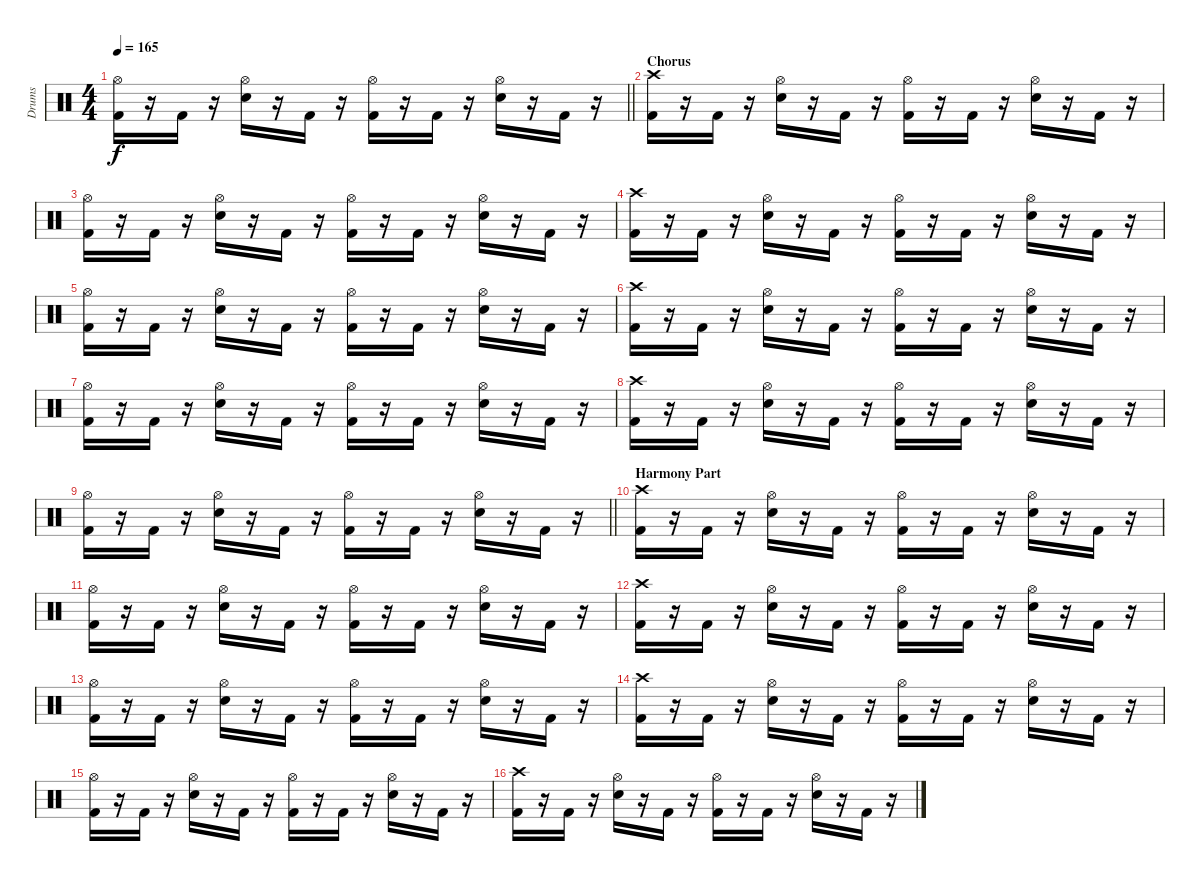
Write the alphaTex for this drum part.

\track ("Drums" "Drums") {instrument percussion}
\staff {score}
\articulation defaults
\ts (4 4)
\tempo 165
\clef neutral
\barLineRight lightlight
\ks c
("Hi-Hat (open)" "Kick (hit) 2").16{dy f} r.16 "Kick (hit) 2".16 r.16 ("Hi-Hat (open)" "Snare (hit) 2").16 r.16 "Kick (hit) 2".16 r.16 ("Hi-Hat (open)" "Kick (hit) 2").16 r.16 "Kick (hit) 2".16 r.16 ("Hi-Hat (open)" "Snare (hit) 2").16 r.16 "Kick (hit) 2".16 r.16 |
\section ("" "Chorus")
("Crash high (hit)" "Kick (hit) 2").16 r.16 "Kick (hit) 2".16 r.16 ("Hi-Hat (open)" "Snare (hit) 2").16 r.16 "Kick (hit) 2".16 r.16 ("Hi-Hat (open)" "Kick (hit) 2").16 r.16 "Kick (hit) 2".16 r.16 ("Hi-Hat (open)" "Snare (hit) 2").16 r.16 "Kick (hit) 2".16 r.16 |
("Hi-Hat (open)" "Kick (hit) 2").16 r.16 "Kick (hit) 2".16 r.16 ("Hi-Hat (open)" "Snare (hit) 2").16 r.16 "Kick (hit) 2".16 r.16 ("Hi-Hat (open)" "Kick (hit) 2").16 r.16 "Kick (hit) 2".16 r.16 ("Hi-Hat (open)" "Snare (hit) 2").16 r.16 "Kick (hit) 2".16 r.16 |
("Crash high (hit)" "Kick (hit) 2").16 r.16 "Kick (hit) 2".16 r.16 ("Hi-Hat (open)" "Snare (hit) 2").16 r.16 "Kick (hit) 2".16 r.16 ("Hi-Hat (open)" "Kick (hit) 2").16 r.16 "Kick (hit) 2".16 r.16 ("Hi-Hat (open)" "Snare (hit) 2").16 r.16 "Kick (hit) 2".16 r.16 |
("Hi-Hat (open)" "Kick (hit) 2").16 r.16 "Kick (hit) 2".16 r.16 ("Hi-Hat (open)" "Snare (hit) 2").16 r.16 "Kick (hit) 2".16 r.16 ("Hi-Hat (open)" "Kick (hit) 2").16 r.16 "Kick (hit) 2".16 r.16 ("Hi-Hat (open)" "Snare (hit) 2").16 r.16 "Kick (hit) 2".16 r.16 |
("Crash high (hit)" "Kick (hit) 2").16 r.16 "Kick (hit) 2".16 r.16 ("Hi-Hat (open)" "Snare (hit) 2").16 r.16 "Kick (hit) 2".16 r.16 ("Hi-Hat (open)" "Kick (hit) 2").16 r.16 "Kick (hit) 2".16 r.16 ("Hi-Hat (open)" "Snare (hit) 2").16 r.16 "Kick (hit) 2".16 r.16 |
("Hi-Hat (open)" "Kick (hit) 2").16 r.16 "Kick (hit) 2".16 r.16 ("Hi-Hat (open)" "Snare (hit) 2").16 r.16 "Kick (hit) 2".16 r.16 ("Hi-Hat (open)" "Kick (hit) 2").16 r.16 "Kick (hit) 2".16 r.16 ("Hi-Hat (open)" "Snare (hit) 2").16 r.16 "Kick (hit) 2".16 r.16 |
("Crash high (hit)" "Kick (hit) 2").16 r.16 "Kick (hit) 2".16 r.16 ("Hi-Hat (open)" "Snare (hit) 2").16 r.16 "Kick (hit) 2".16 r.16 ("Hi-Hat (open)" "Kick (hit) 2").16 r.16 "Kick (hit) 2".16 r.16 ("Hi-Hat (open)" "Snare (hit) 2").16 r.16 "Kick (hit) 2".16 r.16 |
\barLineRight lightlight
("Hi-Hat (open)" "Kick (hit) 2").16 r.16 "Kick (hit) 2".16 r.16 ("Hi-Hat (open)" "Snare (hit) 2").16 r.16 "Kick (hit) 2".16 r.16 ("Hi-Hat (open)" "Kick (hit) 2").16 r.16 "Kick (hit) 2".16 r.16 ("Hi-Hat (open)" "Snare (hit) 2").16 r.16 "Kick (hit) 2".16 r.16 |
\section ("" "Harmony Part")
("Crash high (hit)" "Kick (hit) 2").16 r.16 "Kick (hit) 2".16 r.16 ("Hi-Hat (open)" "Snare (hit) 2").16 r.16 "Kick (hit) 2".16 r.16 ("Hi-Hat (open)" "Kick (hit) 2").16 r.16 "Kick (hit) 2".16 r.16 ("Hi-Hat (open)" "Snare (hit) 2").16 r.16 "Kick (hit) 2".16 r.16 |
("Hi-Hat (open)" "Kick (hit) 2").16 r.16 "Kick (hit) 2".16 r.16 ("Hi-Hat (open)" "Snare (hit) 2").16 r.16 "Kick (hit) 2".16 r.16 ("Hi-Hat (open)" "Kick (hit) 2").16 r.16 "Kick (hit) 2".16 r.16 ("Hi-Hat (open)" "Snare (hit) 2").16 r.16 "Kick (hit) 2".16 r.16 |
("Crash high (hit)" "Kick (hit) 2").16 r.16 "Kick (hit) 2".16 r.16 ("Hi-Hat (open)" "Snare (hit) 2").16 r.16 "Kick (hit) 2".16 r.16 ("Hi-Hat (open)" "Kick (hit) 2").16 r.16 "Kick (hit) 2".16 r.16 ("Hi-Hat (open)" "Snare (hit) 2").16 r.16 "Kick (hit) 2".16 r.16 |
("Hi-Hat (open)" "Kick (hit) 2").16 r.16 "Kick (hit) 2".16 r.16 ("Hi-Hat (open)" "Snare (hit) 2").16 r.16 "Kick (hit) 2".16 r.16 ("Hi-Hat (open)" "Kick (hit) 2").16 r.16 "Kick (hit) 2".16 r.16 ("Hi-Hat (open)" "Snare (hit) 2").16 r.16 "Kick (hit) 2".16 r.16 |
("Crash high (hit)" "Kick (hit) 2").16 r.16 "Kick (hit) 2".16 r.16 ("Hi-Hat (open)" "Snare (hit) 2").16 r.16 "Kick (hit) 2".16 r.16 ("Hi-Hat (open)" "Kick (hit) 2").16 r.16 "Kick (hit) 2".16 r.16 ("Hi-Hat (open)" "Snare (hit) 2").16 r.16 "Kick (hit) 2".16 r.16 |
("Hi-Hat (open)" "Kick (hit) 2").16 r.16 "Kick (hit) 2".16 r.16 ("Hi-Hat (open)" "Snare (hit) 2").16 r.16 "Kick (hit) 2".16 r.16 ("Hi-Hat (open)" "Kick (hit) 2").16 r.16 "Kick (hit) 2".16 r.16 ("Hi-Hat (open)" "Snare (hit) 2").16 r.16 "Kick (hit) 2".16 r.16 |
("Crash high (hit)" "Kick (hit) 2").16 r.16 "Kick (hit) 2".16 r.16 ("Hi-Hat (open)" "Snare (hit) 2").16 r.16 "Kick (hit) 2".16 r.16 ("Hi-Hat (open)" "Kick (hit) 2").16 r.16 "Kick (hit) 2".16 r.16 ("Hi-Hat (open)" "Snare (hit) 2").16 r.16 "Kick (hit) 2".16 r.16
